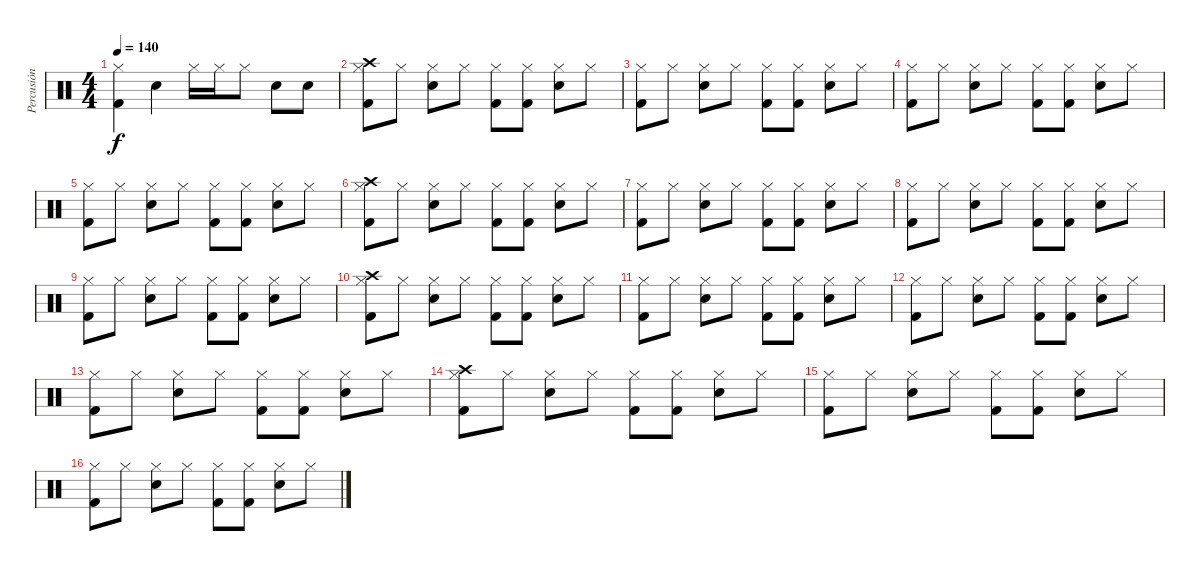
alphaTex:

\track ("Percusión" "Percusión") {instrument percussion}
\staff {score}
\articulation defaults
\ts (4 4)
\tempo 140
\clef neutral
\ks c
("Hi-Hat (closed)" "Kick (hit) 2").4{dy f} "Snare (hit) 2".4 "Hi-Hat (closed)".16 "Hi-Hat (closed)".16 "Hi-Hat (closed)".8 "Snare (hit) 2".8 "Snare (hit) 2".8 |
("Crash high (hit)" "Hi-Hat (closed)" "Kick (hit) 2").8 "Hi-Hat (closed)".8 ("Hi-Hat (closed)" "Snare (hit) 2").8 "Hi-Hat (closed)".8 ("Hi-Hat (closed)" "Kick (hit) 2").8 ("Hi-Hat (closed)" "Kick (hit) 2").8 ("Hi-Hat (closed)" "Snare (hit) 2").8 "Hi-Hat (closed)".8 |
("Hi-Hat (closed)" "Kick (hit) 2").8 "Hi-Hat (closed)".8 ("Hi-Hat (closed)" "Snare (hit) 2").8 "Hi-Hat (closed)".8 ("Hi-Hat (closed)" "Kick (hit) 2").8 ("Hi-Hat (closed)" "Kick (hit) 2").8 ("Hi-Hat (closed)" "Snare (hit) 2").8 "Hi-Hat (closed)".8 |
("Hi-Hat (closed)" "Kick (hit) 2").8 "Hi-Hat (closed)".8 ("Hi-Hat (closed)" "Snare (hit) 2").8 "Hi-Hat (closed)".8 ("Hi-Hat (closed)" "Kick (hit) 2").8 ("Hi-Hat (closed)" "Kick (hit) 2").8 ("Hi-Hat (closed)" "Snare (hit) 2").8 "Hi-Hat (closed)".8 |
("Hi-Hat (closed)" "Kick (hit) 2").8 "Hi-Hat (closed)".8 ("Hi-Hat (closed)" "Snare (hit) 2").8 "Hi-Hat (closed)".8 ("Hi-Hat (closed)" "Kick (hit) 2").8 ("Hi-Hat (closed)" "Kick (hit) 2").8 ("Hi-Hat (closed)" "Snare (hit) 2").8 "Hi-Hat (closed)".8 |
("Crash high (hit)" "Hi-Hat (closed)" "Kick (hit) 2").8 "Hi-Hat (closed)".8 ("Hi-Hat (closed)" "Snare (hit) 2").8 "Hi-Hat (closed)".8 ("Hi-Hat (closed)" "Kick (hit) 2").8 ("Hi-Hat (closed)" "Kick (hit) 2").8 ("Hi-Hat (closed)" "Snare (hit) 2").8 "Hi-Hat (closed)".8 |
("Hi-Hat (closed)" "Kick (hit) 2").8 "Hi-Hat (closed)".8 ("Hi-Hat (closed)" "Snare (hit) 2").8 "Hi-Hat (closed)".8 ("Hi-Hat (closed)" "Kick (hit) 2").8 ("Hi-Hat (closed)" "Kick (hit) 2").8 ("Hi-Hat (closed)" "Snare (hit) 2").8 "Hi-Hat (closed)".8 |
("Hi-Hat (closed)" "Kick (hit) 2").8 "Hi-Hat (closed)".8 ("Hi-Hat (closed)" "Snare (hit) 2").8 "Hi-Hat (closed)".8 ("Hi-Hat (closed)" "Kick (hit) 2").8 ("Hi-Hat (closed)" "Kick (hit) 2").8 ("Hi-Hat (closed)" "Snare (hit) 2").8 "Hi-Hat (closed)".8 |
("Hi-Hat (closed)" "Kick (hit) 2").8 "Hi-Hat (closed)".8 ("Hi-Hat (closed)" "Snare (hit) 2").8 "Hi-Hat (closed)".8 ("Hi-Hat (closed)" "Kick (hit) 2").8 ("Hi-Hat (closed)" "Kick (hit) 2").8 ("Hi-Hat (closed)" "Snare (hit) 2").8 "Hi-Hat (closed)".8 |
("Crash high (hit)" "Hi-Hat (closed)" "Kick (hit) 2").8 "Hi-Hat (closed)".8 ("Hi-Hat (closed)" "Snare (hit) 2").8 "Hi-Hat (closed)".8 ("Hi-Hat (closed)" "Kick (hit) 2").8 ("Hi-Hat (closed)" "Kick (hit) 2").8 ("Hi-Hat (closed)" "Snare (hit) 2").8 "Hi-Hat (closed)".8 |
("Hi-Hat (closed)" "Kick (hit) 2").8 "Hi-Hat (closed)".8 ("Hi-Hat (closed)" "Snare (hit) 2").8 "Hi-Hat (closed)".8 ("Hi-Hat (closed)" "Kick (hit) 2").8 ("Hi-Hat (closed)" "Kick (hit) 2").8 ("Hi-Hat (closed)" "Snare (hit) 2").8 "Hi-Hat (closed)".8 |
("Hi-Hat (closed)" "Kick (hit) 2").8 "Hi-Hat (closed)".8 ("Hi-Hat (closed)" "Snare (hit) 2").8 "Hi-Hat (closed)".8 ("Hi-Hat (closed)" "Kick (hit) 2").8 ("Hi-Hat (closed)" "Kick (hit) 2").8 ("Hi-Hat (closed)" "Snare (hit) 2").8 "Hi-Hat (closed)".8 |
("Hi-Hat (closed)" "Kick (hit) 2").8 "Hi-Hat (closed)".8 ("Hi-Hat (closed)" "Snare (hit) 2").8 "Hi-Hat (closed)".8 ("Hi-Hat (closed)" "Kick (hit) 2").8 ("Hi-Hat (closed)" "Kick (hit) 2").8 ("Hi-Hat (closed)" "Snare (hit) 2").8 "Hi-Hat (closed)".8 |
("Crash high (hit)" "Hi-Hat (closed)" "Kick (hit) 2").8 "Hi-Hat (closed)".8 ("Hi-Hat (closed)" "Snare (hit) 2").8 "Hi-Hat (closed)".8 ("Hi-Hat (closed)" "Kick (hit) 2").8 ("Hi-Hat (closed)" "Kick (hit) 2").8 ("Hi-Hat (closed)" "Snare (hit) 2").8 "Hi-Hat (closed)".8 |
("Hi-Hat (closed)" "Kick (hit) 2").8 "Hi-Hat (closed)".8 ("Hi-Hat (closed)" "Snare (hit) 2").8 "Hi-Hat (closed)".8 ("Hi-Hat (closed)" "Kick (hit) 2").8 ("Hi-Hat (closed)" "Kick (hit) 2").8 ("Hi-Hat (closed)" "Snare (hit) 2").8 "Hi-Hat (closed)".8 |
("Hi-Hat (closed)" "Kick (hit) 2").8 "Hi-Hat (closed)".8 ("Hi-Hat (closed)" "Snare (hit) 2").8 "Hi-Hat (closed)".8 ("Hi-Hat (closed)" "Kick (hit) 2").8 ("Hi-Hat (closed)" "Kick (hit) 2").8 ("Hi-Hat (closed)" "Snare (hit) 2").8 "Hi-Hat (closed)".8
